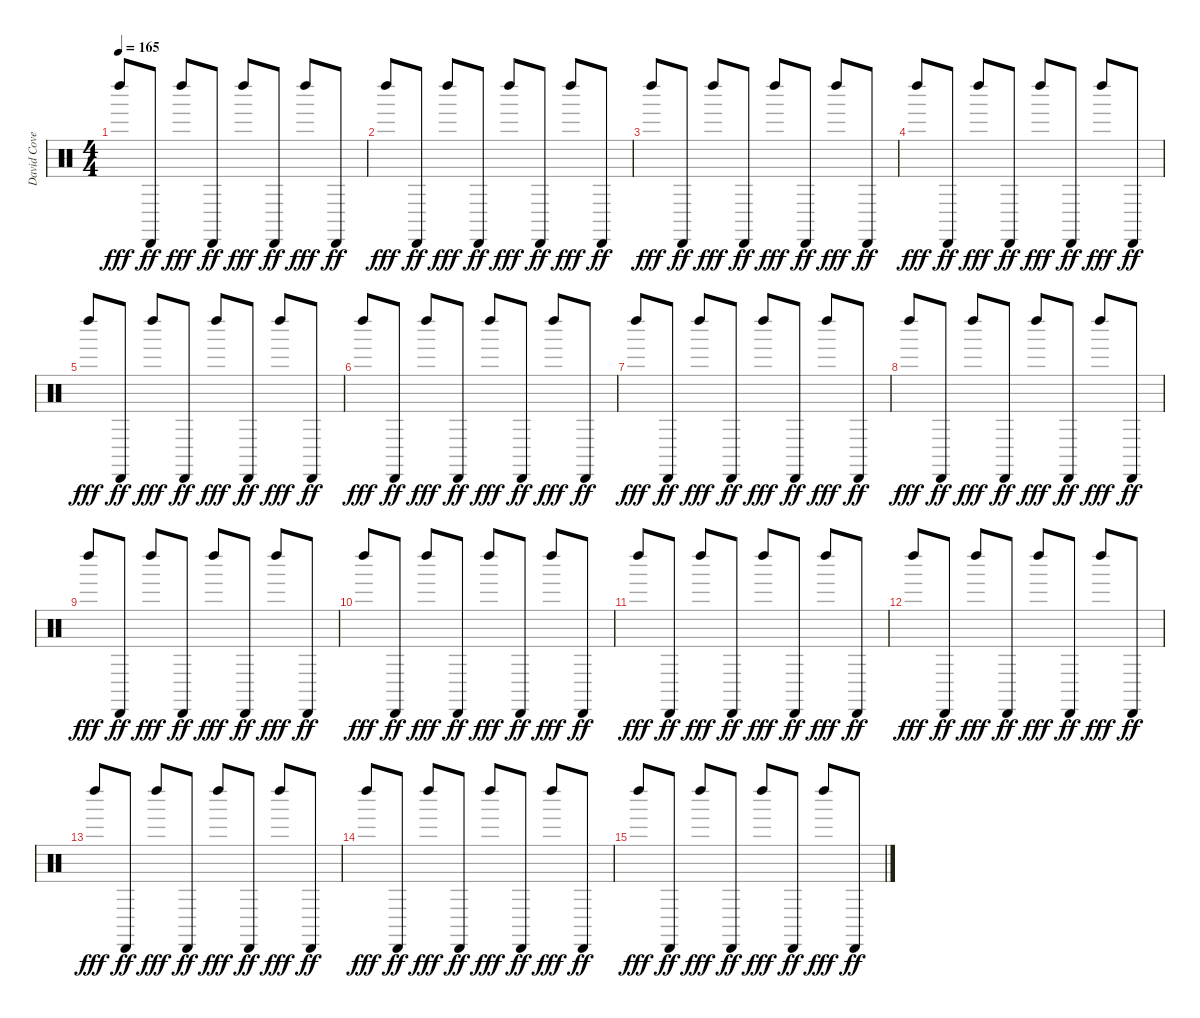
\track ("David Coverdale (Maracas)" "David Cove") {instrument percussion}
\staff {score}
\articulation defaults
\ts (4 4)
\tempo 165
\clef neutral
\ks c "Left Maraca (hit)".8{dy fff} "Cabasa (hit)".8{dy ff} "Left Maraca (hit)".8{dy fff} "Cabasa (hit)".8{dy ff} "Left Maraca (hit)".8{dy fff} "Cabasa (hit)".8{dy ff} "Left Maraca (hit)".8{dy fff} "Cabasa (hit)".8{dy ff}
|
"Left Maraca (hit)".8{dy fff} "Cabasa (hit)".8{dy ff} "Left Maraca (hit)".8{dy fff} "Cabasa (hit)".8{dy ff} "Left Maraca (hit)".8{dy fff} "Cabasa (hit)".8{dy ff} "Left Maraca (hit)".8{dy fff} "Cabasa (hit)".8{dy ff} |
"Left Maraca (hit)".8{dy fff} "Cabasa (hit)".8{dy ff} "Left Maraca (hit)".8{dy fff} "Cabasa (hit)".8{dy ff} "Left Maraca (hit)".8{dy fff} "Cabasa (hit)".8{dy ff} "Left Maraca (hit)".8{dy fff} "Cabasa (hit)".8{dy ff} |
"Left Maraca (hit)".8{dy fff} "Cabasa (hit)".8{dy ff} "Left Maraca (hit)".8{dy fff} "Cabasa (hit)".8{dy ff} "Left Maraca (hit)".8{dy fff} "Cabasa (hit)".8{dy ff} "Left Maraca (hit)".8{dy fff} "Cabasa (hit)".8{dy ff} |
"Left Maraca (hit)".8{dy fff} "Cabasa (hit)".8{dy ff} "Left Maraca (hit)".8{dy fff} "Cabasa (hit)".8{dy ff} "Left Maraca (hit)".8{dy fff} "Cabasa (hit)".8{dy ff} "Left Maraca (hit)".8{dy fff} "Cabasa (hit)".8{dy ff} |
"Left Maraca (hit)".8{dy fff} "Cabasa (hit)".8{dy ff} "Left Maraca (hit)".8{dy fff} "Cabasa (hit)".8{dy ff} "Left Maraca (hit)".8{dy fff} "Cabasa (hit)".8{dy ff} "Left Maraca (hit)".8{dy fff} "Cabasa (hit)".8{dy ff} |
"Left Maraca (hit)".8{dy fff} "Cabasa (hit)".8{dy ff} "Left Maraca (hit)".8{dy fff} "Cabasa (hit)".8{dy ff} "Left Maraca (hit)".8{dy fff} "Cabasa (hit)".8{dy ff} "Left Maraca (hit)".8{dy fff} "Cabasa (hit)".8{dy ff} |
"Left Maraca (hit)".8{dy fff} "Cabasa (hit)".8{dy ff} "Left Maraca (hit)".8{dy fff} "Cabasa (hit)".8{dy ff} "Left Maraca (hit)".8{dy fff} "Cabasa (hit)".8{dy ff} "Left Maraca (hit)".8{dy fff} "Cabasa (hit)".8{dy ff} |
"Left Maraca (hit)".8{dy fff} "Cabasa (hit)".8{dy ff} "Left Maraca (hit)".8{dy fff} "Cabasa (hit)".8{dy ff} "Left Maraca (hit)".8{dy fff} "Cabasa (hit)".8{dy ff} "Left Maraca (hit)".8{dy fff} "Cabasa (hit)".8{dy ff} |
"Left Maraca (hit)".8{dy fff} "Cabasa (hit)".8{dy ff} "Left Maraca (hit)".8{dy fff} "Cabasa (hit)".8{dy ff} "Left Maraca (hit)".8{dy fff} "Cabasa (hit)".8{dy ff} "Left Maraca (hit)".8{dy fff} "Cabasa (hit)".8{dy ff} |
"Left Maraca (hit)".8{dy fff} "Cabasa (hit)".8{dy ff} "Left Maraca (hit)".8{dy fff} "Cabasa (hit)".8{dy ff} "Left Maraca (hit)".8{dy fff} "Cabasa (hit)".8{dy ff} "Left Maraca (hit)".8{dy fff} "Cabasa (hit)".8{dy ff} |
"Left Maraca (hit)".8{dy fff} "Cabasa (hit)".8{dy ff} "Left Maraca (hit)".8{dy fff} "Cabasa (hit)".8{dy ff} "Left Maraca (hit)".8{dy fff} "Cabasa (hit)".8{dy ff} "Left Maraca (hit)".8{dy fff} "Cabasa (hit)".8{dy ff} |
"Left Maraca (hit)".8{dy fff} "Cabasa (hit)".8{dy ff} "Left Maraca (hit)".8{dy fff} "Cabasa (hit)".8{dy ff} "Left Maraca (hit)".8{dy fff} "Cabasa (hit)".8{dy ff} "Left Maraca (hit)".8{dy fff} "Cabasa (hit)".8{dy ff} |
"Left Maraca (hit)".8{dy fff} "Cabasa (hit)".8{dy ff} "Left Maraca (hit)".8{dy fff} "Cabasa (hit)".8{dy ff} "Left Maraca (hit)".8{dy fff} "Cabasa (hit)".8{dy ff} "Left Maraca (hit)".8{dy fff} "Cabasa (hit)".8{dy ff} |
"Left Maraca (hit)".8{dy fff} "Cabasa (hit)".8{dy ff} "Left Maraca (hit)".8{dy fff} "Cabasa (hit)".8{dy ff} "Left Maraca (hit)".8{dy fff} "Cabasa (hit)".8{dy ff} "Left Maraca (hit)".8{dy fff} "Cabasa (hit)".8{dy ff}
